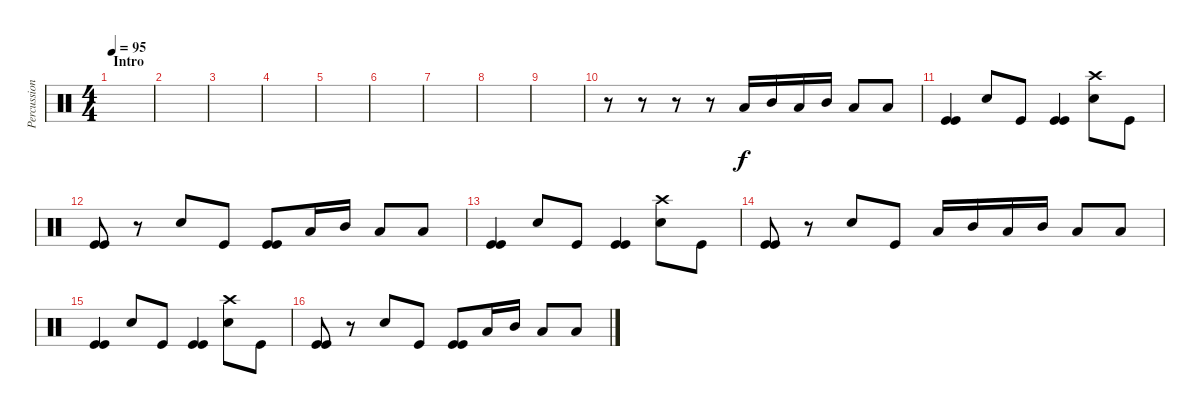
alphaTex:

\track ("Percussion" "Percussion") {instrument percussion}
\staff {score}
\articulation defaults
\ts (4 4)
\section ("" "Intro")
\tempo 95
\clef neutral
\ks c
|
|
|
|
|
|
|
|
|
r.8 r.8 r.8 r.8 "Low Tom (hit)".16 "Mid Tom (hit)".16 "Low Tom (hit)".16 "Mid Tom (hit)".16 "Low Tom (hit)".8 "Low Tom (hit)".8 |
("Kick (hit)" "Kick (hit)").4 "Electric Snare (hit)".8 "Kick (hit)".8 ("Kick (hit)" "Kick (hit)").4 ("Electric Snare (hit)" "Crash high (hit)").8 "Kick (hit)".8 |
("Kick (hit)" "Kick (hit)").8 r.8 "Electric Snare (hit)".8 "Kick (hit)".8 ("Kick (hit)" "Kick (hit)").8 "Low Tom (hit)".16 "Mid Tom (hit)".16 "Low Tom (hit)".8 "Low Tom (hit)".8 |
("Kick (hit)" "Kick (hit)").4 "Electric Snare (hit)".8 "Kick (hit)".8 ("Kick (hit)" "Kick (hit)").4 ("Electric Snare (hit)" "Crash high (hit)").8 "Kick (hit)".8 |
("Kick (hit)" "Kick (hit)").8 r.8 "Electric Snare (hit)".8 "Kick (hit)".8 "Low Tom (hit)".16 "Mid Tom (hit)".16 "Low Tom (hit)".16 "Mid Tom (hit)".16 "Low Tom (hit)".8 "Low Tom (hit)".8 |
("Kick (hit)" "Kick (hit)").4 "Electric Snare (hit)".8 "Kick (hit)".8 ("Kick (hit)" "Kick (hit)").4 ("Electric Snare (hit)" "Crash high (hit)").8 "Kick (hit)".8 |
("Kick (hit)" "Kick (hit)").8 r.8 "Electric Snare (hit)".8 "Kick (hit)".8 ("Kick (hit)" "Kick (hit)").8 "Low Tom (hit)".16 "Mid Tom (hit)".16 "Low Tom (hit)".8 "Low Tom (hit)".8
